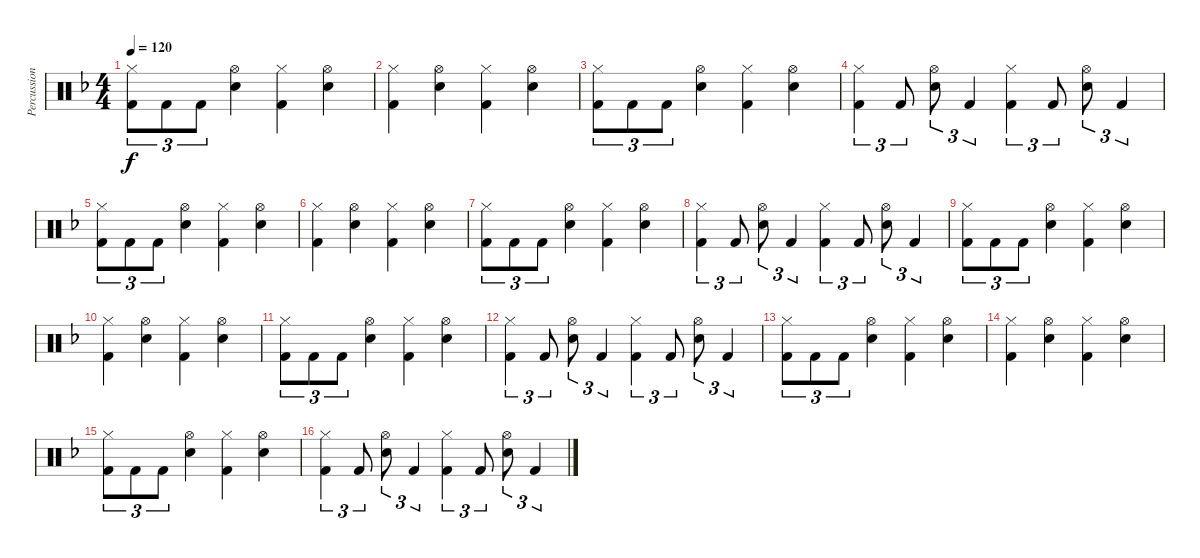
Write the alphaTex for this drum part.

\track ("Percussion" "Percussion") {instrument percussion}
\staff {score}
\articulation defaults
\ts (4 4)
\tempo 120
\clef neutral
\ks dminor
("Hi-Hat (closed)" "Kick (hit) 2").8{tu (3 2) dy f} "Kick (hit) 2".8{tu (3 2)} "Kick (hit) 2".8{tu (3 2)} ("Hi-Hat (open)" "Electric Snare (hit)").4 ("Hi-Hat (closed)" "Kick (hit) 2").4 ("Hi-Hat (open)" "Electric Snare (hit)").4 |
("Hi-Hat (closed)" "Kick (hit) 2").4 ("Hi-Hat (open)" "Electric Snare (hit)").4 ("Hi-Hat (closed)" "Kick (hit) 2").4 ("Hi-Hat (open)" "Electric Snare (hit)").4 |
("Hi-Hat (closed)" "Kick (hit) 2").8{tu (3 2)} "Kick (hit) 2".8{tu (3 2)} "Kick (hit) 2".8{tu (3 2)} ("Hi-Hat (open)" "Electric Snare (hit)").4 ("Hi-Hat (closed)" "Kick (hit) 2").4 ("Hi-Hat (open)" "Electric Snare (hit)").4 |
("Hi-Hat (closed)" "Kick (hit) 2").4{tu (3 2)} "Kick (hit) 2".8{tu (3 2)} ("Hi-Hat (open)" "Electric Snare (hit)").8{tu (3 2)} "Kick (hit) 2".4{tu (3 2)} ("Hi-Hat (closed)" "Kick (hit) 2").4{tu (3 2)} "Kick (hit) 2".8{tu (3 2)} ("Hi-Hat (open)" "Electric Snare (hit)").8{tu (3 2)} "Kick (hit) 2".4{tu (3 2)} |
("Hi-Hat (closed)" "Kick (hit) 2").8{tu (3 2)} "Kick (hit) 2".8{tu (3 2)} "Kick (hit) 2".8{tu (3 2)} ("Hi-Hat (open)" "Electric Snare (hit)").4 ("Hi-Hat (closed)" "Kick (hit) 2").4 ("Hi-Hat (open)" "Electric Snare (hit)").4 |
("Hi-Hat (closed)" "Kick (hit) 2").4 ("Hi-Hat (open)" "Electric Snare (hit)").4 ("Hi-Hat (closed)" "Kick (hit) 2").4 ("Hi-Hat (open)" "Electric Snare (hit)").4 |
("Hi-Hat (closed)" "Kick (hit) 2").8{tu (3 2)} "Kick (hit) 2".8{tu (3 2)} "Kick (hit) 2".8{tu (3 2)} ("Hi-Hat (open)" "Electric Snare (hit)").4 ("Hi-Hat (closed)" "Kick (hit) 2").4 ("Hi-Hat (open)" "Electric Snare (hit)").4 |
("Hi-Hat (closed)" "Kick (hit) 2").4{tu (3 2)} "Kick (hit) 2".8{tu (3 2)} ("Hi-Hat (open)" "Electric Snare (hit)").8{tu (3 2)} "Kick (hit) 2".4{tu (3 2)} ("Hi-Hat (closed)" "Kick (hit) 2").4{tu (3 2)} "Kick (hit) 2".8{tu (3 2)} ("Hi-Hat (open)" "Electric Snare (hit)").8{tu (3 2)} "Kick (hit) 2".4{tu (3 2)} |
("Hi-Hat (closed)" "Kick (hit) 2").8{tu (3 2)} "Kick (hit) 2".8{tu (3 2)} "Kick (hit) 2".8{tu (3 2)} ("Hi-Hat (open)" "Electric Snare (hit)").4 ("Hi-Hat (closed)" "Kick (hit) 2").4 ("Hi-Hat (open)" "Electric Snare (hit)").4 |
("Hi-Hat (closed)" "Kick (hit) 2").4 ("Hi-Hat (open)" "Electric Snare (hit)").4 ("Hi-Hat (closed)" "Kick (hit) 2").4 ("Hi-Hat (open)" "Electric Snare (hit)").4 |
("Hi-Hat (closed)" "Kick (hit) 2").8{tu (3 2)} "Kick (hit) 2".8{tu (3 2)} "Kick (hit) 2".8{tu (3 2)} ("Hi-Hat (open)" "Electric Snare (hit)").4 ("Hi-Hat (closed)" "Kick (hit) 2").4 ("Hi-Hat (open)" "Electric Snare (hit)").4 |
("Hi-Hat (closed)" "Kick (hit) 2").4{tu (3 2)} "Kick (hit) 2".8{tu (3 2)} ("Hi-Hat (open)" "Electric Snare (hit)").8{tu (3 2)} "Kick (hit) 2".4{tu (3 2)} ("Hi-Hat (closed)" "Kick (hit) 2").4{tu (3 2)} "Kick (hit) 2".8{tu (3 2)} ("Hi-Hat (open)" "Electric Snare (hit)").8{tu (3 2)} "Kick (hit) 2".4{tu (3 2)} |
("Hi-Hat (closed)" "Kick (hit) 2").8{tu (3 2)} "Kick (hit) 2".8{tu (3 2)} "Kick (hit) 2".8{tu (3 2)} ("Hi-Hat (open)" "Electric Snare (hit)").4 ("Hi-Hat (closed)" "Kick (hit) 2").4 ("Hi-Hat (open)" "Electric Snare (hit)").4 |
("Hi-Hat (closed)" "Kick (hit) 2").4 ("Hi-Hat (open)" "Electric Snare (hit)").4 ("Hi-Hat (closed)" "Kick (hit) 2").4 ("Hi-Hat (open)" "Electric Snare (hit)").4 |
("Hi-Hat (closed)" "Kick (hit) 2").8{tu (3 2)} "Kick (hit) 2".8{tu (3 2)} "Kick (hit) 2".8{tu (3 2)} ("Hi-Hat (open)" "Electric Snare (hit)").4 ("Hi-Hat (closed)" "Kick (hit) 2").4 ("Hi-Hat (open)" "Electric Snare (hit)").4 |
("Hi-Hat (closed)" "Kick (hit) 2").4{tu (3 2)} "Kick (hit) 2".8{tu (3 2)} ("Hi-Hat (open)" "Electric Snare (hit)").8{tu (3 2)} "Kick (hit) 2".4{tu (3 2)} ("Hi-Hat (closed)" "Kick (hit) 2").4{tu (3 2)} "Kick (hit) 2".8{tu (3 2)} ("Hi-Hat (open)" "Electric Snare (hit)").8{tu (3 2)} "Kick (hit) 2".4{tu (3 2)}
